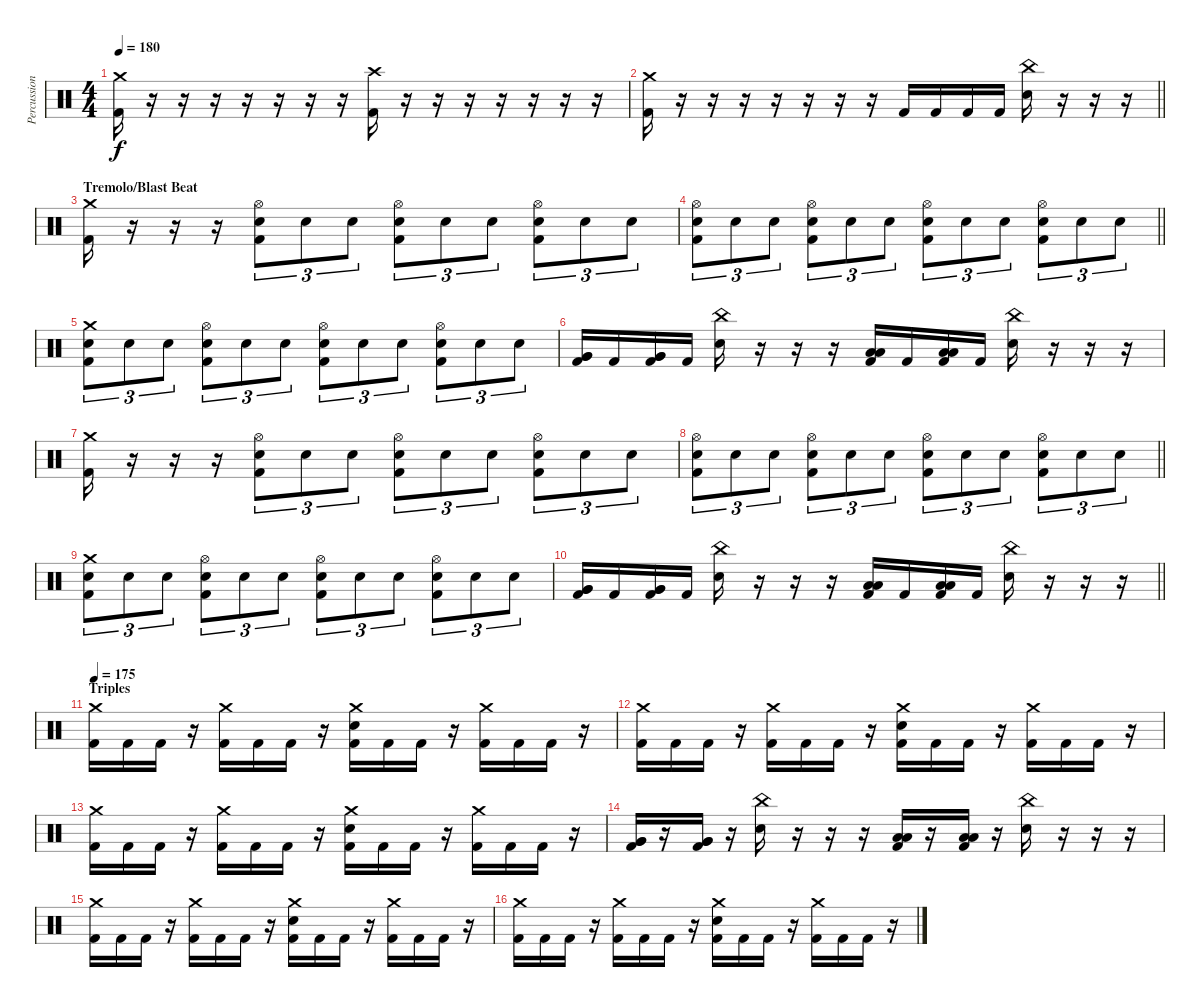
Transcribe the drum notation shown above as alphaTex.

\track ("Percussion" "Percussion") {instrument percussion}
\staff {score}
\articulation defaults
\ts (4 4)
\tempo 180
\clef neutral
\ks c
("Crash medium (hit)" "Kick (hit) 2").16{dy f} r.16 r.16 r.16 r.16 r.16 r.16 r.16 ("Crash high (hit)" "Kick (hit) 2").16 r.16 r.16 r.16 r.16 r.16 r.16 r.16 |
\barLineRight lightlight
("Crash medium (hit)" "Kick (hit) 2").16 r.16 r.16 r.16 r.16 r.16 r.16 r.16 "Kick (hit) 2".16 "Kick (hit) 2".16 "Kick (hit) 2".16 "Kick (hit) 2".16 ("China (hit)" "Electric Snare (hit)").16 r.16 r.16 r.16 |
\section ("" "Tremolo/Blast Beat")
("Crash medium (hit)" "Kick (hit) 2").16 r.16 r.16 r.16 ("Hi-Hat (open)" "Electric Snare (hit)" "Kick (hit) 2").8{tu (3 2)} "Electric Snare (hit)".8{tu (3 2)} "Electric Snare (hit)".8{tu (3 2)} ("Hi-Hat (open)" "Electric Snare (hit)" "Kick (hit) 2").8{tu (3 2)} "Electric Snare (hit)".8{tu (3 2)} "Electric Snare (hit)".8{tu (3 2)} ("Hi-Hat (open)" "Electric Snare (hit)" "Kick (hit) 2").8{tu (3 2)} "Electric Snare (hit)".8{tu (3 2)} "Electric Snare (hit)".8{tu (3 2)} |
\barLineRight lightlight
("Hi-Hat (open)" "Electric Snare (hit)" "Kick (hit) 2").8{tu (3 2)} "Electric Snare (hit)".8{tu (3 2)} "Electric Snare (hit)".8{tu (3 2)} ("Hi-Hat (open)" "Electric Snare (hit)" "Kick (hit) 2").8{tu (3 2)} "Electric Snare (hit)".8{tu (3 2)} "Electric Snare (hit)".8{tu (3 2)} ("Hi-Hat (open)" "Electric Snare (hit)" "Kick (hit) 2").8{tu (3 2)} "Electric Snare (hit)".8{tu (3 2)} "Electric Snare (hit)".8{tu (3 2)} ("Hi-Hat (open)" "Electric Snare (hit)" "Kick (hit) 2").8{tu (3 2)} "Electric Snare (hit)".8{tu (3 2)} "Electric Snare (hit)".8{tu (3 2)} |
("Crash medium (hit)" "Electric Snare (hit)" "Kick (hit) 2").8{tu (3 2)} "Electric Snare (hit)".8{tu (3 2)} "Electric Snare (hit)".8{tu (3 2)} ("Hi-Hat (open)" "Electric Snare (hit)" "Kick (hit) 2").8{tu (3 2)} "Electric Snare (hit)".8{tu (3 2)} "Electric Snare (hit)".8{tu (3 2)} ("Hi-Hat (open)" "Electric Snare (hit)" "Kick (hit) 2").8{tu (3 2)} "Electric Snare (hit)".8{tu (3 2)} "Electric Snare (hit)".8{tu (3 2)} ("Hi-Hat (open)" "Electric Snare (hit)" "Kick (hit) 2").8{tu (3 2)} "Electric Snare (hit)".8{tu (3 2)} "Electric Snare (hit)".8{tu (3 2)} |
("Very Low Tom (hit)" "Very Low Tom (hit)" "Kick (hit) 2").16 "Kick (hit) 2".16 ("Very Low Tom (hit)" "Very Low Tom (hit)" "Kick (hit) 2").16 "Kick (hit) 2".16 ("China (hit)" "Electric Snare (hit)").16 r.16 r.16 r.16 ("Low Floor Tom (hit)" "Low Floor Tom (hit)" "Kick (hit) 2").16 "Kick (hit) 2".16 ("Low Floor Tom (hit)" "Low Floor Tom (hit)" "Kick (hit) 2").16 "Kick (hit) 2".16 ("China (hit)" "Electric Snare (hit)").16 r.16 r.16 r.16 |
("Crash medium (hit)" "Kick (hit) 2").16 r.16 r.16 r.16 ("Hi-Hat (open)" "Electric Snare (hit)" "Kick (hit) 2").8{tu (3 2)} "Electric Snare (hit)".8{tu (3 2)} "Electric Snare (hit)".8{tu (3 2)} ("Hi-Hat (open)" "Electric Snare (hit)" "Kick (hit) 2").8{tu (3 2)} "Electric Snare (hit)".8{tu (3 2)} "Electric Snare (hit)".8{tu (3 2)} ("Hi-Hat (open)" "Electric Snare (hit)" "Kick (hit) 2").8{tu (3 2)} "Electric Snare (hit)".8{tu (3 2)} "Electric Snare (hit)".8{tu (3 2)} |
\barLineRight lightlight
("Hi-Hat (open)" "Electric Snare (hit)" "Kick (hit) 2").8{tu (3 2)} "Electric Snare (hit)".8{tu (3 2)} "Electric Snare (hit)".8{tu (3 2)} ("Hi-Hat (open)" "Electric Snare (hit)" "Kick (hit) 2").8{tu (3 2)} "Electric Snare (hit)".8{tu (3 2)} "Electric Snare (hit)".8{tu (3 2)} ("Hi-Hat (open)" "Electric Snare (hit)" "Kick (hit) 2").8{tu (3 2)} "Electric Snare (hit)".8{tu (3 2)} "Electric Snare (hit)".8{tu (3 2)} ("Hi-Hat (open)" "Electric Snare (hit)" "Kick (hit) 2").8{tu (3 2)} "Electric Snare (hit)".8{tu (3 2)} "Electric Snare (hit)".8{tu (3 2)} |
("Crash medium (hit)" "Electric Snare (hit)" "Kick (hit) 2").8{tu (3 2)} "Electric Snare (hit)".8{tu (3 2)} "Electric Snare (hit)".8{tu (3 2)} ("Hi-Hat (open)" "Electric Snare (hit)" "Kick (hit) 2").8{tu (3 2)} "Electric Snare (hit)".8{tu (3 2)} "Electric Snare (hit)".8{tu (3 2)} ("Hi-Hat (open)" "Electric Snare (hit)" "Kick (hit) 2").8{tu (3 2)} "Electric Snare (hit)".8{tu (3 2)} "Electric Snare (hit)".8{tu (3 2)} ("Hi-Hat (open)" "Electric Snare (hit)" "Kick (hit) 2").8{tu (3 2)} "Electric Snare (hit)".8{tu (3 2)} "Electric Snare (hit)".8{tu (3 2)} |
\barLineRight lightlight
("Very Low Tom (hit)" "Very Low Tom (hit)" "Kick (hit) 2").16 "Kick (hit) 2".16 ("Very Low Tom (hit)" "Very Low Tom (hit)" "Kick (hit) 2").16 "Kick (hit) 2".16 ("China (hit)" "Electric Snare (hit)").16 r.16 r.16 r.16 ("Low Floor Tom (hit)" "Low Floor Tom (hit)" "Kick (hit) 2").16 "Kick (hit) 2".16 ("Low Floor Tom (hit)" "Low Floor Tom (hit)" "Kick (hit) 2").16 "Kick (hit) 2".16 ("China (hit)" "Electric Snare (hit)").16 r.16 r.16 r.16 |
\section ("" "Triples")
\tempo 175
("Crash medium (hit)" "Kick (hit) 2").16 "Kick (hit) 2".16 "Kick (hit) 2".16 r.16 ("Crash medium (hit)" "Kick (hit) 2").16 "Kick (hit) 2".16 "Kick (hit) 2".16 r.16 ("Crash medium (hit)" "Electric Snare (hit)" "Kick (hit) 2").16 "Kick (hit) 2".16 "Kick (hit) 2".16 r.16 ("Crash medium (hit)" "Kick (hit) 2").16 "Kick (hit) 2".16 "Kick (hit) 2".16 r.16 |
("Crash medium (hit)" "Kick (hit) 2").16 "Kick (hit) 2".16 "Kick (hit) 2".16 r.16 ("Crash medium (hit)" "Kick (hit) 2").16 "Kick (hit) 2".16 "Kick (hit) 2".16 r.16 ("Crash medium (hit)" "Electric Snare (hit)" "Kick (hit) 2").16 "Kick (hit) 2".16 "Kick (hit) 2".16 r.16 ("Crash medium (hit)" "Kick (hit) 2").16 "Kick (hit) 2".16 "Kick (hit) 2".16 r.16 |
("Crash medium (hit)" "Kick (hit) 2").16 "Kick (hit) 2".16 "Kick (hit) 2".16 r.16 ("Crash medium (hit)" "Kick (hit) 2").16 "Kick (hit) 2".16 "Kick (hit) 2".16 r.16 ("Crash medium (hit)" "Electric Snare (hit)" "Kick (hit) 2").16 "Kick (hit) 2".16 "Kick (hit) 2".16 r.16 ("Crash medium (hit)" "Kick (hit) 2").16 "Kick (hit) 2".16 "Kick (hit) 2".16 r.16 |
("Very Low Tom (hit)" "Very Low Tom (hit)" "Kick (hit) 2").16 r.16 ("Very Low Tom (hit)" "Very Low Tom (hit)" "Kick (hit) 2").16 r.16 ("China (hit)" "Electric Snare (hit)").16 r.16 r.16 r.16 ("Low Floor Tom (hit)" "Low Floor Tom (hit)" "Kick (hit) 2").16 r.16 ("Low Floor Tom (hit)" "Low Floor Tom (hit)" "Kick (hit) 2").16 r.16 ("China (hit)" "Electric Snare (hit)").16 r.16 r.16 r.16 |
("Crash medium (hit)" "Kick (hit) 2").16 "Kick (hit) 2".16 "Kick (hit) 2".16 r.16 ("Crash medium (hit)" "Kick (hit) 2").16 "Kick (hit) 2".16 "Kick (hit) 2".16 r.16 ("Crash medium (hit)" "Electric Snare (hit)" "Kick (hit) 2").16 "Kick (hit) 2".16 "Kick (hit) 2".16 r.16 ("Crash medium (hit)" "Kick (hit) 2").16 "Kick (hit) 2".16 "Kick (hit) 2".16 r.16 |
("Crash medium (hit)" "Kick (hit) 2").16 "Kick (hit) 2".16 "Kick (hit) 2".16 r.16 ("Crash medium (hit)" "Kick (hit) 2").16 "Kick (hit) 2".16 "Kick (hit) 2".16 r.16 ("Crash medium (hit)" "Electric Snare (hit)" "Kick (hit) 2").16 "Kick (hit) 2".16 "Kick (hit) 2".16 r.16 ("Crash medium (hit)" "Kick (hit) 2").16 "Kick (hit) 2".16 "Kick (hit) 2".16 r.16
